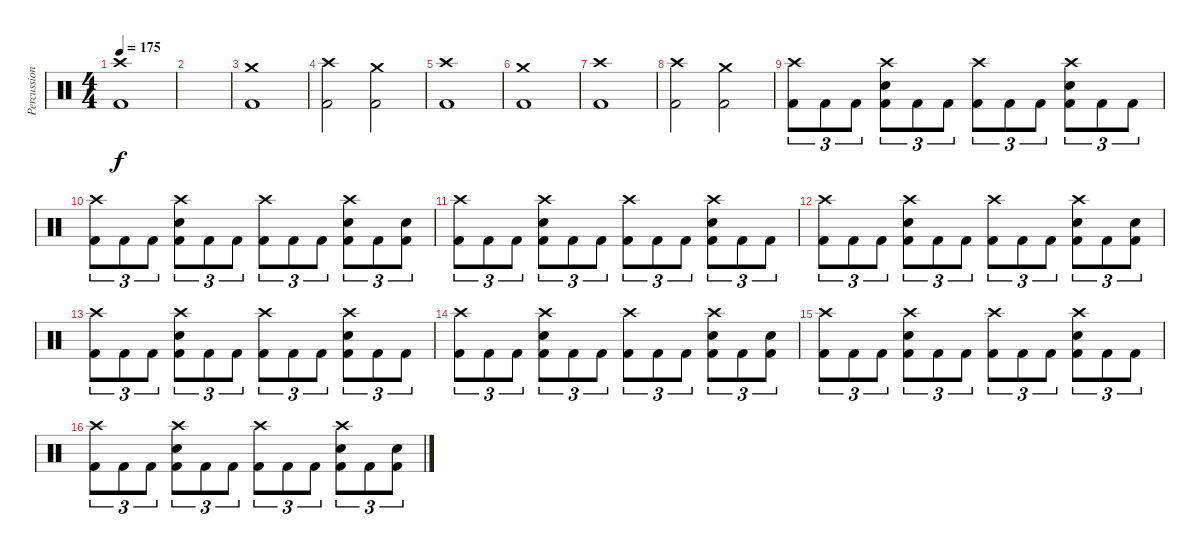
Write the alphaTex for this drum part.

\track ("Percussion" "Percussion") {instrument percussion}
\staff {score}
\articulation defaults
\ts (4 4)
\tempo 175
\clef neutral
\ks c
("Crash high (hit)" "Kick (hit) 2").1{dy f} |
|
("Crash medium (hit)" "Kick (hit) 2").1 |
("Crash high (hit)" "Kick (hit) 2").2 ("Crash medium (hit)" "Kick (hit) 2").2 |
("Crash high (hit)" "Kick (hit) 2").1 |
("Crash medium (hit)" "Kick (hit) 2").1 |
("Crash high (hit)" "Kick (hit) 2").1 |
("Crash high (hit)" "Kick (hit) 2").2 ("Crash medium (hit)" "Kick (hit) 2").2 |
("Crash high (hit)" "Kick (hit) 2").8{tu (3 2)} "Kick (hit) 2".8{tu (3 2)} "Kick (hit) 2".8{tu (3 2)} ("Crash high (hit)" "Electric Snare (hit)" "Kick (hit) 2").8{tu (3 2)} "Kick (hit) 2".8{tu (3 2)} "Kick (hit) 2".8{tu (3 2)} ("Crash high (hit)" "Kick (hit) 2").8{tu (3 2)} "Kick (hit) 2".8{tu (3 2)} "Kick (hit) 2".8{tu (3 2)} ("Crash high (hit)" "Electric Snare (hit)" "Kick (hit) 2").8{tu (3 2)} "Kick (hit) 2".8{tu (3 2)} "Kick (hit) 2".8{tu (3 2)} |
("Crash high (hit)" "Kick (hit) 2").8{tu (3 2)} "Kick (hit) 2".8{tu (3 2)} "Kick (hit) 2".8{tu (3 2)} ("Crash high (hit)" "Electric Snare (hit)" "Kick (hit) 2").8{tu (3 2)} "Kick (hit) 2".8{tu (3 2)} "Kick (hit) 2".8{tu (3 2)} ("Crash high (hit)" "Kick (hit) 2").8{tu (3 2)} "Kick (hit) 2".8{tu (3 2)} "Kick (hit) 2".8{tu (3 2)} ("Crash high (hit)" "Electric Snare (hit)" "Kick (hit) 2").8{tu (3 2)} "Kick (hit) 2".8{tu (3 2)} ("Electric Snare (hit)" "Kick (hit) 2").8{tu (3 2)} |
("Crash high (hit)" "Kick (hit) 2").8{tu (3 2)} "Kick (hit) 2".8{tu (3 2)} "Kick (hit) 2".8{tu (3 2)} ("Crash high (hit)" "Electric Snare (hit)" "Kick (hit) 2").8{tu (3 2)} "Kick (hit) 2".8{tu (3 2)} "Kick (hit) 2".8{tu (3 2)} ("Crash high (hit)" "Kick (hit) 2").8{tu (3 2)} "Kick (hit) 2".8{tu (3 2)} "Kick (hit) 2".8{tu (3 2)} ("Crash high (hit)" "Electric Snare (hit)" "Kick (hit) 2").8{tu (3 2)} "Kick (hit) 2".8{tu (3 2)} "Kick (hit) 2".8{tu (3 2)} |
("Crash high (hit)" "Kick (hit) 2").8{tu (3 2)} "Kick (hit) 2".8{tu (3 2)} "Kick (hit) 2".8{tu (3 2)} ("Crash high (hit)" "Electric Snare (hit)" "Kick (hit) 2").8{tu (3 2)} "Kick (hit) 2".8{tu (3 2)} "Kick (hit) 2".8{tu (3 2)} ("Crash high (hit)" "Kick (hit) 2").8{tu (3 2)} "Kick (hit) 2".8{tu (3 2)} "Kick (hit) 2".8{tu (3 2)} ("Crash high (hit)" "Electric Snare (hit)" "Kick (hit) 2").8{tu (3 2)} "Kick (hit) 2".8{tu (3 2)} ("Electric Snare (hit)" "Kick (hit) 2").8{tu (3 2)} |
("Crash high (hit)" "Kick (hit) 2").8{tu (3 2)} "Kick (hit) 2".8{tu (3 2)} "Kick (hit) 2".8{tu (3 2)} ("Crash high (hit)" "Electric Snare (hit)" "Kick (hit) 2").8{tu (3 2)} "Kick (hit) 2".8{tu (3 2)} "Kick (hit) 2".8{tu (3 2)} ("Crash high (hit)" "Kick (hit) 2").8{tu (3 2)} "Kick (hit) 2".8{tu (3 2)} "Kick (hit) 2".8{tu (3 2)} ("Crash high (hit)" "Electric Snare (hit)" "Kick (hit) 2").8{tu (3 2)} "Kick (hit) 2".8{tu (3 2)} "Kick (hit) 2".8{tu (3 2)} |
("Crash high (hit)" "Kick (hit) 2").8{tu (3 2)} "Kick (hit) 2".8{tu (3 2)} "Kick (hit) 2".8{tu (3 2)} ("Crash high (hit)" "Electric Snare (hit)" "Kick (hit) 2").8{tu (3 2)} "Kick (hit) 2".8{tu (3 2)} "Kick (hit) 2".8{tu (3 2)} ("Crash high (hit)" "Kick (hit) 2").8{tu (3 2)} "Kick (hit) 2".8{tu (3 2)} "Kick (hit) 2".8{tu (3 2)} ("Crash high (hit)" "Electric Snare (hit)" "Kick (hit) 2").8{tu (3 2)} "Kick (hit) 2".8{tu (3 2)} ("Electric Snare (hit)" "Kick (hit) 2").8{tu (3 2)} |
("Crash high (hit)" "Kick (hit) 2").8{tu (3 2)} "Kick (hit) 2".8{tu (3 2)} "Kick (hit) 2".8{tu (3 2)} ("Crash high (hit)" "Electric Snare (hit)" "Kick (hit) 2").8{tu (3 2)} "Kick (hit) 2".8{tu (3 2)} "Kick (hit) 2".8{tu (3 2)} ("Crash high (hit)" "Kick (hit) 2").8{tu (3 2)} "Kick (hit) 2".8{tu (3 2)} "Kick (hit) 2".8{tu (3 2)} ("Crash high (hit)" "Electric Snare (hit)" "Kick (hit) 2").8{tu (3 2)} "Kick (hit) 2".8{tu (3 2)} "Kick (hit) 2".8{tu (3 2)} |
("Crash high (hit)" "Kick (hit) 2").8{tu (3 2)} "Kick (hit) 2".8{tu (3 2)} "Kick (hit) 2".8{tu (3 2)} ("Crash high (hit)" "Electric Snare (hit)" "Kick (hit) 2").8{tu (3 2)} "Kick (hit) 2".8{tu (3 2)} "Kick (hit) 2".8{tu (3 2)} ("Crash high (hit)" "Kick (hit) 2").8{tu (3 2)} "Kick (hit) 2".8{tu (3 2)} "Kick (hit) 2".8{tu (3 2)} ("Crash high (hit)" "Electric Snare (hit)" "Kick (hit) 2").8{tu (3 2)} "Kick (hit) 2".8{tu (3 2)} ("Electric Snare (hit)" "Kick (hit) 2").8{tu (3 2)}
